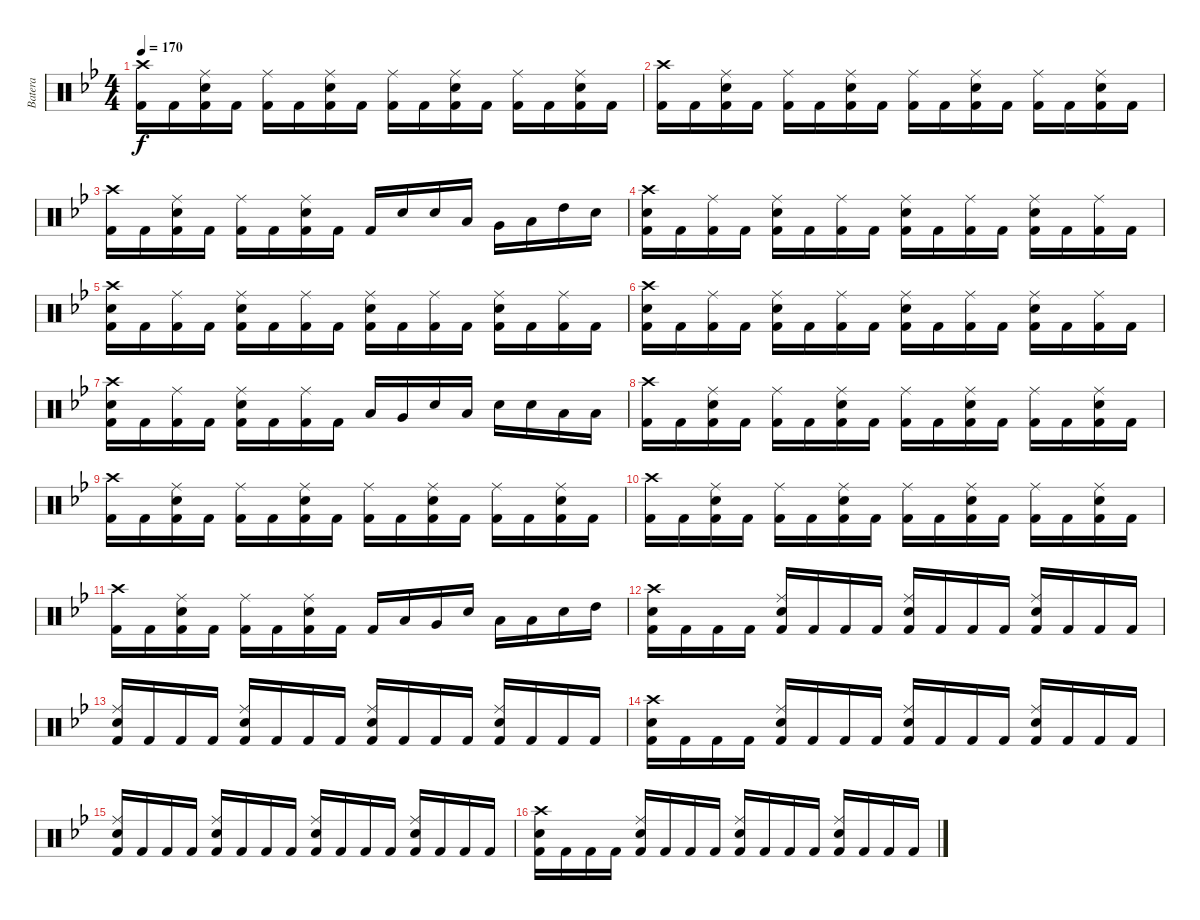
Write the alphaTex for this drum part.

\track ("Batera" "Batera") {instrument percussion}
\staff {score}
\articulation defaults
\ts (4 4)
\tempo 170
\clef neutral
\ks bb
("Crash high (hit)" "Kick (hit) 2").16{dy f} "Kick (hit) 2".16 ("Ride (middle)" "Electric Snare (hit)" "Kick (hit) 2").16 "Kick (hit) 2".16 ("Ride (middle)" "Kick (hit) 2").16 "Kick (hit) 2".16 ("Ride (middle)" "Electric Snare (hit)" "Kick (hit) 2").16 "Kick (hit) 2".16 ("Ride (middle)" "Kick (hit) 2").16 "Kick (hit) 2".16 ("Ride (middle)" "Electric Snare (hit)" "Kick (hit) 2").16 "Kick (hit) 2".16 ("Ride (middle)" "Kick (hit) 2").16 "Kick (hit) 2".16 ("Ride (middle)" "Electric Snare (hit)" "Kick (hit) 2").16 "Kick (hit) 2".16 |
("Crash high (hit)" "Kick (hit) 2").16 "Kick (hit) 2".16 ("Ride (middle)" "Electric Snare (hit)" "Kick (hit) 2").16 "Kick (hit) 2".16 ("Ride (middle)" "Kick (hit) 2").16 "Kick (hit) 2".16 ("Ride (middle)" "Electric Snare (hit)" "Kick (hit) 2").16 "Kick (hit) 2".16 ("Ride (middle)" "Kick (hit) 2").16 "Kick (hit) 2".16 ("Ride (middle)" "Electric Snare (hit)" "Kick (hit) 2").16 "Kick (hit) 2".16 ("Ride (middle)" "Kick (hit) 2").16 "Kick (hit) 2".16 ("Ride (middle)" "Electric Snare (hit)" "Kick (hit) 2").16 "Kick (hit) 2".16 |
("Crash high (hit)" "Kick (hit) 2").16 "Kick (hit) 2".16 ("Ride (middle)" "Electric Snare (hit)" "Kick (hit) 2").16 "Kick (hit) 2".16 ("Ride (middle)" "Kick (hit) 2").16 "Kick (hit) 2".16 ("Ride (middle)" "Electric Snare (hit)" "Kick (hit) 2").16 "Kick (hit) 2".16 "Kick (hit) 2".16 "Electric Snare (hit)".16 "Electric Snare (hit)".16 "Low Floor Tom (hit)".16 "Very Low Tom (hit)".16 "Low Tom (hit)".16 "High Tom (hit)".16 "Electric Snare (hit)".16 |
("Crash high (hit)" "Electric Snare (hit)" "Kick (hit) 2").16 "Kick (hit) 2".16 ("Ride (middle)" "Kick (hit) 2").16 "Kick (hit) 2".16 ("Ride (middle)" "Electric Snare (hit)" "Kick (hit) 2").16 "Kick (hit) 2".16 ("Ride (middle)" "Kick (hit) 2").16 "Kick (hit) 2".16 ("Ride (middle)" "Electric Snare (hit)" "Kick (hit) 2").16 "Kick (hit) 2".16 ("Ride (middle)" "Kick (hit) 2").16 "Kick (hit) 2".16 ("Ride (middle)" "Electric Snare (hit)" "Kick (hit) 2").16 "Kick (hit) 2".16 ("Ride (middle)" "Kick (hit) 2").16 "Kick (hit) 2".16 |
("Crash high (hit)" "Electric Snare (hit)" "Kick (hit) 2").16 "Kick (hit) 2".16 ("Ride (middle)" "Kick (hit) 2").16 "Kick (hit) 2".16 ("Ride (middle)" "Electric Snare (hit)" "Kick (hit) 2").16 "Kick (hit) 2".16 ("Ride (middle)" "Kick (hit) 2").16 "Kick (hit) 2".16 ("Ride (middle)" "Electric Snare (hit)" "Kick (hit) 2").16 "Kick (hit) 2".16 ("Ride (middle)" "Kick (hit) 2").16 "Kick (hit) 2".16 ("Ride (middle)" "Electric Snare (hit)" "Kick (hit) 2").16 "Kick (hit) 2".16 ("Ride (middle)" "Kick (hit) 2").16 "Kick (hit) 2".16 |
("Crash high (hit)" "Electric Snare (hit)" "Kick (hit) 2").16 "Kick (hit) 2".16 ("Ride (middle)" "Kick (hit) 2").16 "Kick (hit) 2".16 ("Ride (middle)" "Electric Snare (hit)" "Kick (hit) 2").16 "Kick (hit) 2".16 ("Ride (middle)" "Kick (hit) 2").16 "Kick (hit) 2".16 ("Ride (middle)" "Electric Snare (hit)" "Kick (hit) 2").16 "Kick (hit) 2".16 ("Ride (middle)" "Kick (hit) 2").16 "Kick (hit) 2".16 ("Ride (middle)" "Electric Snare (hit)" "Kick (hit) 2").16 "Kick (hit) 2".16 ("Ride (middle)" "Kick (hit) 2").16 "Kick (hit) 2".16 |
("Crash high (hit)" "Electric Snare (hit)" "Kick (hit) 2").16 "Kick (hit) 2".16 ("Ride (middle)" "Kick (hit) 2").16 "Kick (hit) 2".16 ("Ride (middle)" "Electric Snare (hit)" "Kick (hit) 2").16 "Kick (hit) 2".16 ("Ride (middle)" "Kick (hit) 2").16 "Kick (hit) 2".16 "Low Floor Tom (hit)".16 "Very Low Tom (hit)".16 "Electric Snare (hit)".16 "Low Tom (hit)".16 "Electric Snare (hit)".16 "Electric Snare (hit)".16 "Low Floor Tom (hit)".16 "Low Tom (hit)".16 |
("Crash high (hit)" "Kick (hit) 2").16 "Kick (hit) 2".16 ("Ride (middle)" "Electric Snare (hit)" "Kick (hit) 2").16 "Kick (hit) 2".16 ("Ride (middle)" "Kick (hit) 2").16 "Kick (hit) 2".16 ("Ride (middle)" "Electric Snare (hit)" "Kick (hit) 2").16 "Kick (hit) 2".16 ("Ride (middle)" "Kick (hit) 2").16 "Kick (hit) 2".16 ("Ride (middle)" "Electric Snare (hit)" "Kick (hit) 2").16 "Kick (hit) 2".16 ("Ride (middle)" "Kick (hit) 2").16 "Kick (hit) 2".16 ("Ride (middle)" "Electric Snare (hit)" "Kick (hit) 2").16 "Kick (hit) 2".16 |
("Crash high (hit)" "Kick (hit) 2").16 "Kick (hit) 2".16 ("Ride (middle)" "Electric Snare (hit)" "Kick (hit) 2").16 "Kick (hit) 2".16 ("Ride (middle)" "Kick (hit) 2").16 "Kick (hit) 2".16 ("Ride (middle)" "Electric Snare (hit)" "Kick (hit) 2").16 "Kick (hit) 2".16 ("Ride (middle)" "Kick (hit) 2").16 "Kick (hit) 2".16 ("Ride (middle)" "Electric Snare (hit)" "Kick (hit) 2").16 "Kick (hit) 2".16 ("Ride (middle)" "Kick (hit) 2").16 "Kick (hit) 2".16 ("Ride (middle)" "Electric Snare (hit)" "Kick (hit) 2").16 "Kick (hit) 2".16 |
("Crash high (hit)" "Kick (hit) 2").16 "Kick (hit) 2".16 ("Ride (middle)" "Electric Snare (hit)" "Kick (hit) 2").16 "Kick (hit) 2".16 ("Ride (middle)" "Kick (hit) 2").16 "Kick (hit) 2".16 ("Ride (middle)" "Electric Snare (hit)" "Kick (hit) 2").16 "Kick (hit) 2".16 ("Ride (middle)" "Kick (hit) 2").16 "Kick (hit) 2".16 ("Ride (middle)" "Electric Snare (hit)" "Kick (hit) 2").16 "Kick (hit) 2".16 ("Ride (middle)" "Kick (hit) 2").16 "Kick (hit) 2".16 ("Ride (middle)" "Electric Snare (hit)" "Kick (hit) 2").16 "Kick (hit) 2".16 |
("Crash high (hit)" "Kick (hit) 2").16 "Kick (hit) 2".16 ("Ride (middle)" "Electric Snare (hit)" "Kick (hit) 2").16 "Kick (hit) 2".16 ("Ride (middle)" "Kick (hit) 2").16 "Kick (hit) 2".16 ("Ride (middle)" "Electric Snare (hit)" "Kick (hit) 2").16 "Kick (hit) 2".16 "Kick (hit) 2".16 "Low Floor Tom (hit)".16 "Very Low Tom (hit)".16 "Electric Snare (hit)".16 "Low Floor Tom (hit)".16 "Low Tom (hit)".16 "Electric Snare (hit)".16 "High Tom (hit)".16 |
("Crash high (hit)" "Electric Snare (hit)" "Kick (hit) 2").16 "Kick (hit) 2".16 "Kick (hit) 2".16 "Kick (hit) 2".16 ("Ride (middle)" "Electric Snare (hit)" "Kick (hit) 2").16 "Kick (hit) 2".16 "Kick (hit) 2".16 "Kick (hit) 2".16 ("Ride (middle)" "Electric Snare (hit)" "Kick (hit) 2").16 "Kick (hit) 2".16 "Kick (hit) 2".16 "Kick (hit) 2".16 ("Ride (middle)" "Electric Snare (hit)" "Kick (hit) 2").16 "Kick (hit) 2".16 "Kick (hit) 2".16 "Kick (hit) 2".16 |
("Ride (middle)" "Electric Snare (hit)" "Kick (hit) 2").16 "Kick (hit) 2".16 "Kick (hit) 2".16 "Kick (hit) 2".16 ("Ride (middle)" "Electric Snare (hit)" "Kick (hit) 2").16 "Kick (hit) 2".16 "Kick (hit) 2".16 "Kick (hit) 2".16 ("Ride (middle)" "Electric Snare (hit)" "Kick (hit) 2").16 "Kick (hit) 2".16 "Kick (hit) 2".16 "Kick (hit) 2".16 ("Ride (middle)" "Electric Snare (hit)" "Kick (hit) 2").16 "Kick (hit) 2".16 "Kick (hit) 2".16 "Kick (hit) 2".16 |
("Crash high (hit)" "Electric Snare (hit)" "Kick (hit) 2").16 "Kick (hit) 2".16 "Kick (hit) 2".16 "Kick (hit) 2".16 ("Ride (middle)" "Electric Snare (hit)" "Kick (hit) 2").16 "Kick (hit) 2".16 "Kick (hit) 2".16 "Kick (hit) 2".16 ("Ride (middle)" "Electric Snare (hit)" "Kick (hit) 2").16 "Kick (hit) 2".16 "Kick (hit) 2".16 "Kick (hit) 2".16 ("Ride (middle)" "Electric Snare (hit)" "Kick (hit) 2").16 "Kick (hit) 2".16 "Kick (hit) 2".16 "Kick (hit) 2".16 |
("Ride (middle)" "Electric Snare (hit)" "Kick (hit) 2").16 "Kick (hit) 2".16 "Kick (hit) 2".16 "Kick (hit) 2".16 ("Ride (middle)" "Electric Snare (hit)" "Kick (hit) 2").16 "Kick (hit) 2".16 "Kick (hit) 2".16 "Kick (hit) 2".16 ("Ride (middle)" "Electric Snare (hit)" "Kick (hit) 2").16 "Kick (hit) 2".16 "Kick (hit) 2".16 "Kick (hit) 2".16 ("Ride (middle)" "Electric Snare (hit)" "Kick (hit) 2").16 "Kick (hit) 2".16 "Kick (hit) 2".16 "Kick (hit) 2".16 |
("Crash high (hit)" "Electric Snare (hit)" "Kick (hit) 2").16 "Kick (hit) 2".16 "Kick (hit) 2".16 "Kick (hit) 2".16 ("Ride (middle)" "Electric Snare (hit)" "Kick (hit) 2").16 "Kick (hit) 2".16 "Kick (hit) 2".16 "Kick (hit) 2".16 ("Ride (middle)" "Electric Snare (hit)" "Kick (hit) 2").16 "Kick (hit) 2".16 "Kick (hit) 2".16 "Kick (hit) 2".16 ("Ride (middle)" "Electric Snare (hit)" "Kick (hit) 2").16 "Kick (hit) 2".16 "Kick (hit) 2".16 "Kick (hit) 2".16
